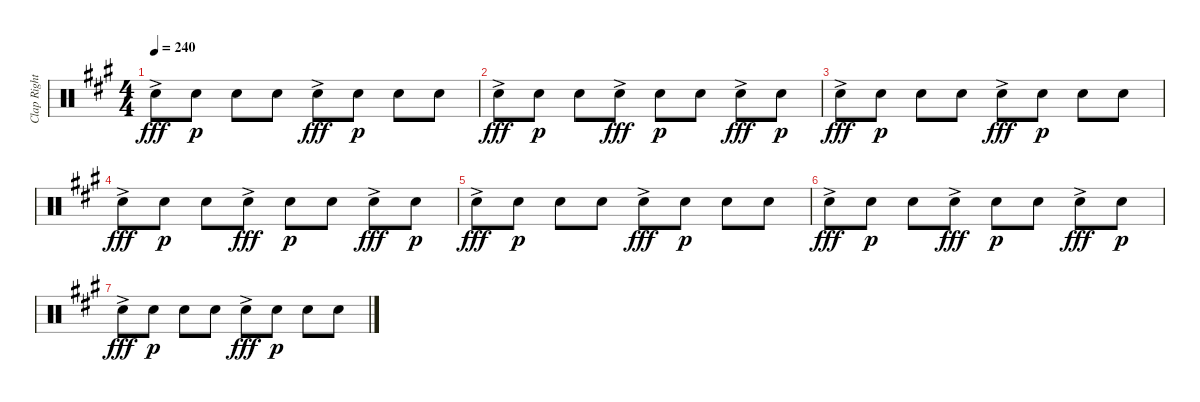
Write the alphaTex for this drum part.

\track ("Clap Right" "Clap Right") {instrument percussion}
\staff {score}
\articulation defaults
\ts (4 4)
\tempo 240
\clef neutral
\ks a "Hand Clap (hit)"{ac}.8{dy fff} "Hand Clap (hit)".8{dy p} "Hand Clap (hit)".8 "Hand Clap (hit)".8 "Hand Clap (hit)"{ac}.8{dy fff} "Hand Clap (hit)".8{dy p} "Hand Clap (hit)".8 "Hand Clap (hit)".8
|
"Hand Clap (hit)"{ac}.8{dy fff} "Hand Clap (hit)".8{dy p} "Hand Clap (hit)".8 "Hand Clap (hit)"{ac}.8{dy fff} "Hand Clap (hit)".8{dy p} "Hand Clap (hit)".8 "Hand Clap (hit)"{ac}.8{dy fff} "Hand Clap (hit)".8{dy p} |
"Hand Clap (hit)"{ac}.8{dy fff} "Hand Clap (hit)".8{dy p} "Hand Clap (hit)".8 "Hand Clap (hit)".8 "Hand Clap (hit)"{ac}.8{dy fff} "Hand Clap (hit)".8{dy p} "Hand Clap (hit)".8 "Hand Clap (hit)".8 |
"Hand Clap (hit)"{ac}.8{dy fff} "Hand Clap (hit)".8{dy p} "Hand Clap (hit)".8 "Hand Clap (hit)"{ac}.8{dy fff} "Hand Clap (hit)".8{dy p} "Hand Clap (hit)".8 "Hand Clap (hit)"{ac}.8{dy fff} "Hand Clap (hit)".8{dy p} |
"Hand Clap (hit)"{ac}.8{dy fff} "Hand Clap (hit)".8{dy p} "Hand Clap (hit)".8 "Hand Clap (hit)".8 "Hand Clap (hit)"{ac}.8{dy fff} "Hand Clap (hit)".8{dy p} "Hand Clap (hit)".8 "Hand Clap (hit)".8 |
"Hand Clap (hit)"{ac}.8{dy fff} "Hand Clap (hit)".8{dy p} "Hand Clap (hit)".8 "Hand Clap (hit)"{ac}.8{dy fff} "Hand Clap (hit)".8{dy p} "Hand Clap (hit)".8 "Hand Clap (hit)"{ac}.8{dy fff} "Hand Clap (hit)".8{dy p} |
"Hand Clap (hit)"{ac}.8{dy fff} "Hand Clap (hit)".8{dy p} "Hand Clap (hit)".8 "Hand Clap (hit)".8 "Hand Clap (hit)"{ac}.8{dy fff} "Hand Clap (hit)".8{dy p} "Hand Clap (hit)".8 "Hand Clap (hit)".8
